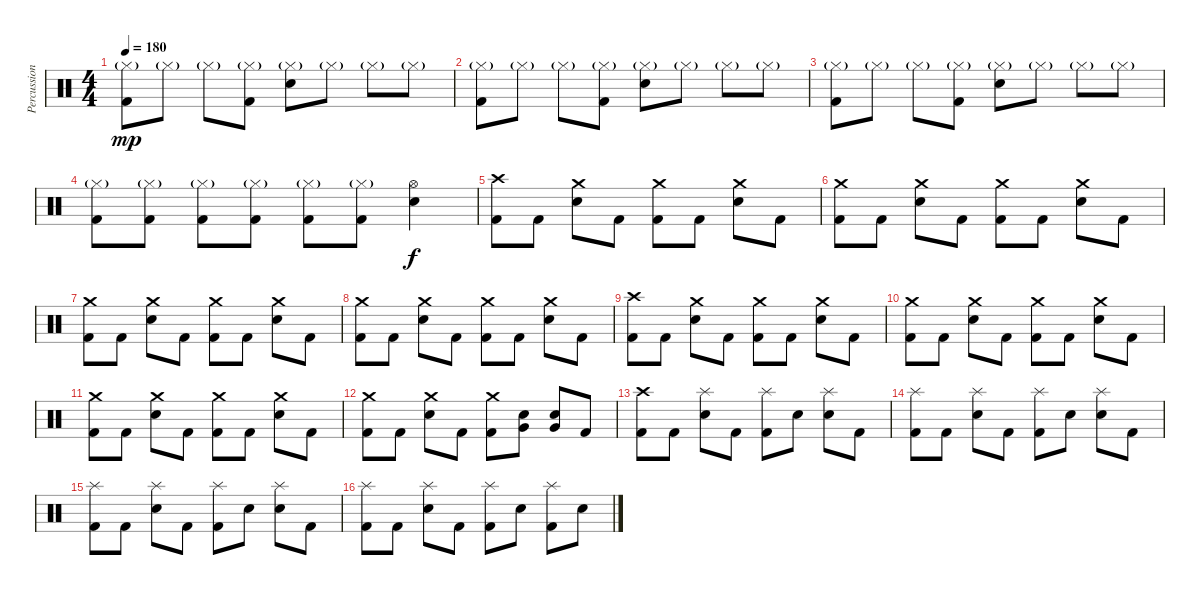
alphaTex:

\track ("Percussion" "Percussion") {instrument percussion}
\staff {score}
\articulation defaults
\ts (4 4)
\tempo 180
\clef neutral
\ks c
("Hi-Hat (closed)"{g} "Kick (hit) 2").8{dy mp} "Hi-Hat (closed)"{g}.8 "Hi-Hat (closed)"{g}.8 ("Hi-Hat (closed)"{g} "Kick (hit) 2").8 ("Hi-Hat (closed)"{g} "Electric Snare (hit)").8 "Hi-Hat (closed)"{g}.8 "Hi-Hat (closed)"{g}.8 "Hi-Hat (closed)"{g}.8 |
("Hi-Hat (closed)"{g} "Kick (hit) 2").8 "Hi-Hat (closed)"{g}.8 "Hi-Hat (closed)"{g}.8 ("Hi-Hat (closed)"{g} "Kick (hit) 2").8 ("Hi-Hat (closed)"{g} "Electric Snare (hit)").8 "Hi-Hat (closed)"{g}.8 "Hi-Hat (closed)"{g}.8 "Hi-Hat (closed)"{g}.8 |
("Hi-Hat (closed)"{g} "Kick (hit) 2").8 "Hi-Hat (closed)"{g}.8 "Hi-Hat (closed)"{g}.8 ("Hi-Hat (closed)"{g} "Kick (hit) 2").8 ("Hi-Hat (closed)"{g} "Electric Snare (hit)").8 "Hi-Hat (closed)"{g}.8 "Hi-Hat (closed)"{g}.8 "Hi-Hat (closed)"{g}.8 |
("Hi-Hat (closed)"{g} "Kick (hit) 2").8 ("Hi-Hat (closed)"{g} "Kick (hit) 2").8 ("Hi-Hat (closed)"{g} "Kick (hit) 2").8 ("Hi-Hat (closed)"{g} "Kick (hit) 2").8 ("Hi-Hat (closed)"{g} "Kick (hit) 2").8 ("Hi-Hat (closed)"{g} "Kick (hit) 2").8 ("Hi-Hat (open)" "Electric Snare (hit)").4{dy f} |
("Crash high (hit)" "Kick (hit) 2").8 "Kick (hit) 2".8 ("Crash medium (hit)" "Electric Snare (hit)").8 "Kick (hit) 2".8 ("Crash medium (hit)" "Kick (hit) 2").8 "Kick (hit) 2".8 ("Crash medium (hit)" "Electric Snare (hit)").8 "Kick (hit) 2".8 |
("Crash medium (hit)" "Kick (hit) 2").8 "Kick (hit) 2".8 ("Crash medium (hit)" "Electric Snare (hit)").8 "Kick (hit) 2".8 ("Crash medium (hit)" "Kick (hit) 2").8 "Kick (hit) 2".8 ("Crash medium (hit)" "Electric Snare (hit)").8 "Kick (hit) 2".8 |
("Crash medium (hit)" "Kick (hit) 2").8 "Kick (hit) 2".8 ("Crash medium (hit)" "Electric Snare (hit)").8 "Kick (hit) 2".8 ("Crash medium (hit)" "Kick (hit) 2").8 "Kick (hit) 2".8 ("Crash medium (hit)" "Electric Snare (hit)").8 "Kick (hit) 2".8 |
("Crash medium (hit)" "Kick (hit) 2").8 "Kick (hit) 2".8 ("Crash medium (hit)" "Electric Snare (hit)").8 "Kick (hit) 2".8 ("Crash medium (hit)" "Kick (hit) 2").8 "Kick (hit) 2".8 ("Crash medium (hit)" "Electric Snare (hit)").8 "Kick (hit) 2".8 |
("Crash high (hit)" "Kick (hit) 2").8 "Kick (hit) 2".8 ("Crash medium (hit)" "Electric Snare (hit)").8 "Kick (hit) 2".8 ("Crash medium (hit)" "Kick (hit) 2").8 "Kick (hit) 2".8 ("Crash medium (hit)" "Electric Snare (hit)").8 "Kick (hit) 2".8 |
("Crash medium (hit)" "Kick (hit) 2").8 "Kick (hit) 2".8 ("Crash medium (hit)" "Electric Snare (hit)").8 "Kick (hit) 2".8 ("Crash medium (hit)" "Kick (hit) 2").8 "Kick (hit) 2".8 ("Crash medium (hit)" "Electric Snare (hit)").8 "Kick (hit) 2".8 |
("Crash medium (hit)" "Kick (hit) 2").8 "Kick (hit) 2".8 ("Crash medium (hit)" "Electric Snare (hit)").8 "Kick (hit) 2".8 ("Crash medium (hit)" "Kick (hit) 2").8 "Kick (hit) 2".8 ("Crash medium (hit)" "Electric Snare (hit)").8 "Kick (hit) 2".8 |
("Crash medium (hit)" "Kick (hit) 2").8 "Kick (hit) 2".8 ("Crash medium (hit)" "Electric Snare (hit)").8 "Kick (hit) 2".8 ("Crash medium (hit)" "Kick (hit) 2").8 ("Electric Snare (hit)" "Very Low Tom (hit)").8 ("Electric Snare (hit)" "Very Low Tom (hit)").8 "Kick (hit) 2".8 |
("Crash high (hit)" "Kick (hit) 2").8 "Kick (hit) 2".8 ("Splash (hit)" "Electric Snare (hit)").8 "Kick (hit) 2".8 ("Splash (hit)" "Kick (hit) 2").8 "Electric Snare (hit)".8 ("Splash (hit)" "Electric Snare (hit)").8 "Kick (hit) 2".8 |
("Splash (hit)" "Kick (hit) 2").8 "Kick (hit) 2".8 ("Splash (hit)" "Electric Snare (hit)").8 "Kick (hit) 2".8 ("Splash (hit)" "Kick (hit) 2").8 "Electric Snare (hit)".8 ("Splash (hit)" "Electric Snare (hit)").8 "Kick (hit) 2".8 |
("Splash (hit)" "Kick (hit) 2").8 "Kick (hit) 2".8 ("Splash (hit)" "Electric Snare (hit)").8 "Kick (hit) 2".8 ("Splash (hit)" "Kick (hit) 2").8 "Electric Snare (hit)".8 ("Splash (hit)" "Electric Snare (hit)").8 "Kick (hit) 2".8 |
("Splash (hit)" "Kick (hit) 2").8 "Kick (hit) 2".8 ("Splash (hit)" "Electric Snare (hit)").8 "Kick (hit) 2".8 ("Splash (hit)" "Kick (hit) 2").8 "Electric Snare (hit)".8 ("Splash (hit)" "Kick (hit) 2").8 "Electric Snare (hit)".8
